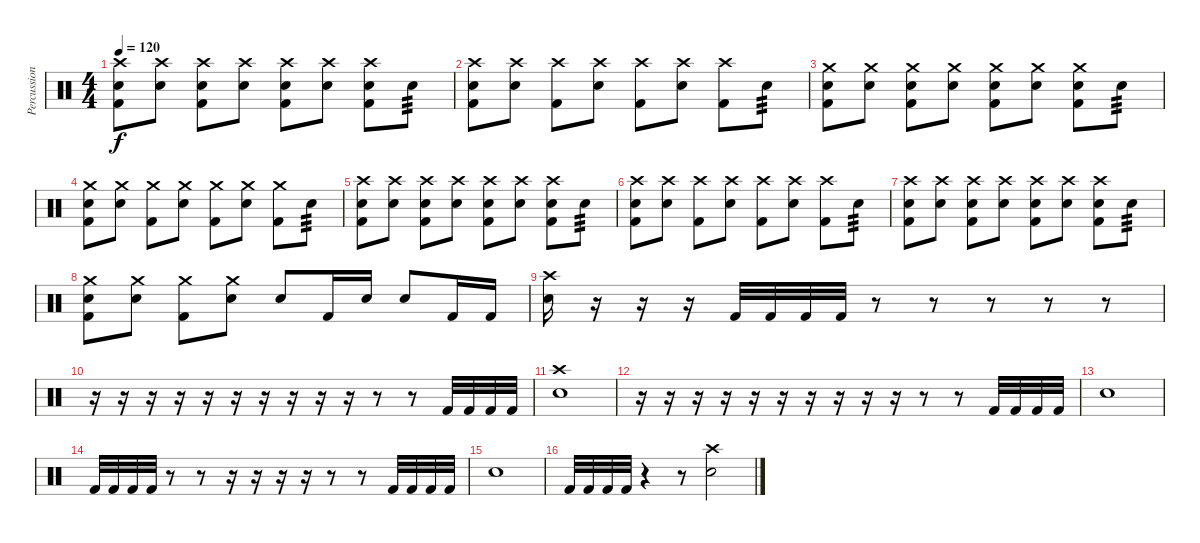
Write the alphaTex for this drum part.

\track ("Percussions" "Percussion") {instrument percussion}
\staff {score}
\articulation defaults
\ts (4 4)
\tempo 120
\clef neutral
\ks c
("Crash high (hit)" "Snare (hit) 2" "Kick (hit) 2").8{dy f} ("Crash high (hit)" "Snare (hit) 2").8 ("Crash high (hit)" "Snare (hit) 2" "Kick (hit) 2").8 ("Crash high (hit)" "Snare (hit) 2").8 ("Crash high (hit)" "Snare (hit) 2" "Kick (hit) 2").8 ("Crash high (hit)" "Snare (hit) 2").8 ("Crash high (hit)" "Snare (hit) 2" "Kick (hit) 2").8 "Snare (hit) 2".8{tp 3} |
("Crash high (hit)" "Snare (hit) 2" "Kick (hit) 2").8 ("Crash high (hit)" "Snare (hit) 2").8 ("Crash high (hit)" "Kick (hit) 2").8 ("Crash high (hit)" "Snare (hit) 2").8 ("Crash high (hit)" "Kick (hit) 2").8 ("Crash high (hit)" "Snare (hit) 2").8 ("Crash high (hit)" "Kick (hit) 2").8 "Snare (hit) 2".8{tp 3} |
("Crash medium (hit)" "Snare (hit) 2" "Kick (hit) 2").8 ("Crash medium (hit)" "Snare (hit) 2").8 ("Crash medium (hit)" "Snare (hit) 2" "Kick (hit) 2").8 ("Crash medium (hit)" "Snare (hit) 2").8 ("Crash medium (hit)" "Snare (hit) 2" "Kick (hit) 2").8 ("Crash medium (hit)" "Snare (hit) 2").8 ("Crash medium (hit)" "Snare (hit) 2" "Kick (hit) 2").8 "Snare (hit) 2".8{tp 3} |
("Crash medium (hit)" "Snare (hit) 2" "Kick (hit) 2").8 ("Crash medium (hit)" "Snare (hit) 2").8 ("Crash medium (hit)" "Kick (hit) 2").8 ("Crash medium (hit)" "Snare (hit) 2").8 ("Crash medium (hit)" "Kick (hit) 2").8 ("Crash medium (hit)" "Snare (hit) 2").8 ("Crash medium (hit)" "Kick (hit) 2").8 "Snare (hit) 2".8{tp 3} |
("Crash high (hit)" "Snare (hit) 2" "Kick (hit) 2").8 ("Crash high (hit)" "Snare (hit) 2").8 ("Crash high (hit)" "Snare (hit) 2" "Kick (hit) 2").8 ("Crash high (hit)" "Snare (hit) 2").8 ("Crash high (hit)" "Snare (hit) 2" "Kick (hit) 2").8 ("Crash high (hit)" "Snare (hit) 2").8 ("Crash high (hit)" "Snare (hit) 2" "Kick (hit) 2").8 "Snare (hit) 2".8{tp 3} |
("Crash high (hit)" "Snare (hit) 2" "Kick (hit) 2").8 ("Crash high (hit)" "Snare (hit) 2").8 ("Crash high (hit)" "Kick (hit) 2").8 ("Crash high (hit)" "Snare (hit) 2").8 ("Crash high (hit)" "Kick (hit) 2").8 ("Crash high (hit)" "Snare (hit) 2").8 ("Crash high (hit)" "Kick (hit) 2").8 "Snare (hit) 2".8{tp 3} |
("Crash high (hit)" "Snare (hit) 2" "Kick (hit) 2").8 ("Crash high (hit)" "Snare (hit) 2").8 ("Crash high (hit)" "Snare (hit) 2" "Kick (hit) 2").8 ("Crash high (hit)" "Snare (hit) 2").8 ("Crash high (hit)" "Snare (hit) 2" "Kick (hit) 2").8 ("Crash high (hit)" "Snare (hit) 2").8 ("Crash high (hit)" "Snare (hit) 2" "Kick (hit) 2").8 "Snare (hit) 2".8{tp 3} |
("Crash medium (hit)" "Snare (hit) 2" "Kick (hit) 2").8 ("Crash medium (hit)" "Snare (hit) 2").8 ("Crash medium (hit)" "Kick (hit) 2").8 ("Crash medium (hit)" "Snare (hit) 2").8 "Snare (hit) 2".8 "Kick (hit) 2".16 "Snare (hit) 2".16 "Snare (hit) 2".8 "Kick (hit) 2".16 "Kick (hit) 2".16 |
("Crash high (hit)" "Snare (hit) 2").16 r.16 r.16 r.16 "Kick (hit) 2".32 "Kick (hit) 2".32 "Kick (hit) 2".32 "Kick (hit) 2".32 r.8 r.8 r.8 r.8 r.8 |
r.16 r.16 r.16 r.16 r.16 r.16 r.16 r.16 r.16 r.16 r.8 r.8 "Kick (hit) 2".32 "Kick (hit) 2".32 "Kick (hit) 2".32 "Kick (hit) 2".32 |
("Crash high (hit)" "Snare (hit) 2").1 |
r.16 r.16 r.16 r.16 r.16 r.16 r.16 r.16 r.16 r.16 r.8 r.8 "Kick (hit) 2".32 "Kick (hit) 2".32 "Kick (hit) 2".32 "Kick (hit) 2".32 |
"Snare (hit) 2".1 |
"Kick (hit) 2".32 "Kick (hit) 2".32 "Kick (hit) 2".32 "Kick (hit) 2".32 r.8 r.8 r.16 r.16 r.16 r.16 r.8 r.8 "Kick (hit) 2".32 "Kick (hit) 2".32 "Kick (hit) 2".32 "Kick (hit) 2".32 |
"Snare (hit) 2".1 |
"Kick (hit) 2".32 "Kick (hit) 2".32 "Kick (hit) 2".32 "Kick (hit) 2".32 r.4 r.8 ("Crash high (hit)" "Snare (hit) 2").2
